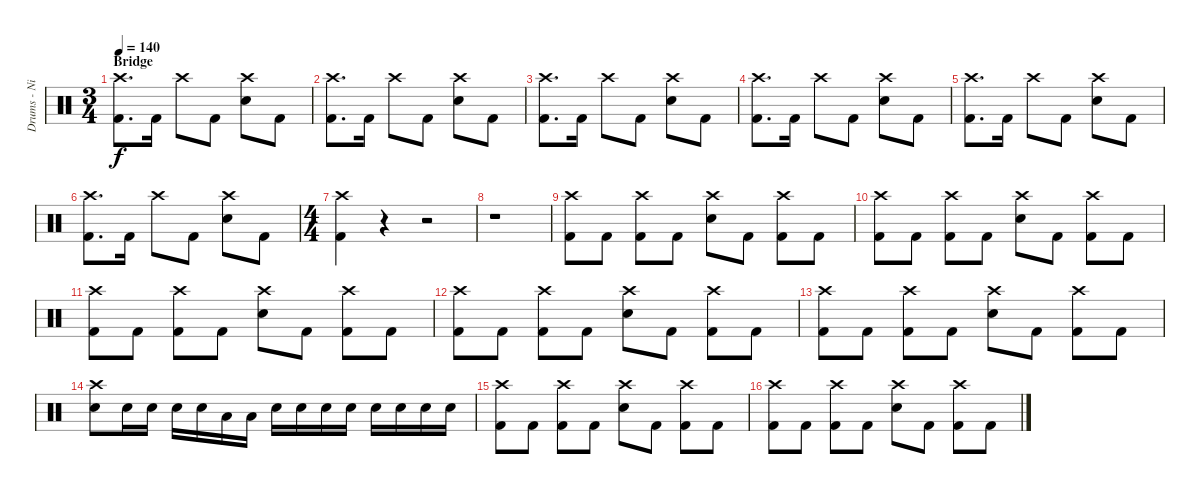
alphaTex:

\track ("Drums - Nick" "Drums - Ni") {instrument percussion}
\staff {score}
\articulation defaults
\ts (3 4)
\section ("" "Bridge ")
\tempo 140
\clef neutral
\ks c
("Crash high (hit)" "Kick (hit) 2").8{d dy f} "Kick (hit) 2".16 "Crash high (hit)".8 "Kick (hit) 2".8 ("Crash high (hit)" "Snare (hit) 2").8 "Kick (hit) 2".8 |
("Crash high (hit)" "Kick (hit) 2").8{d} "Kick (hit) 2".16 "Crash high (hit)".8 "Kick (hit) 2".8 ("Crash high (hit)" "Snare (hit) 2").8 "Kick (hit) 2".8 |
("Crash high (hit)" "Kick (hit) 2").8{d} "Kick (hit) 2".16 "Crash high (hit)".8 "Kick (hit) 2".8 ("Crash high (hit)" "Snare (hit) 2").8 "Kick (hit) 2".8 |
("Crash high (hit)" "Kick (hit) 2").8{d} "Kick (hit) 2".16 "Crash high (hit)".8 "Kick (hit) 2".8 ("Crash high (hit)" "Snare (hit) 2").8 "Kick (hit) 2".8 |
("Crash high (hit)" "Kick (hit) 2").8{d} "Kick (hit) 2".16 "Crash high (hit)".8 "Kick (hit) 2".8 ("Crash high (hit)" "Snare (hit) 2").8 "Kick (hit) 2".8 |
("Crash high (hit)" "Kick (hit) 2").8{d} "Kick (hit) 2".16 "Crash high (hit)".8 "Kick (hit) 2".8 ("Crash high (hit)" "Snare (hit) 2").8 "Kick (hit) 2".8 |
\ts (4 4)
("Crash high (hit)" "Kick (hit) 2").4 r.4 r.2 |
r.1 |
("Crash high (hit)" "Kick (hit) 2").8 "Kick (hit) 2".8 ("Crash high (hit)" "Kick (hit) 2").8 "Kick (hit) 2".8 ("Crash high (hit)" "Snare (hit) 2").8 "Kick (hit) 2".8 ("Crash high (hit)" "Kick (hit) 2").8 "Kick (hit) 2".8 |
("Crash high (hit)" "Kick (hit) 2").8 "Kick (hit) 2".8 ("Crash high (hit)" "Kick (hit) 2").8 "Kick (hit) 2".8 ("Crash high (hit)" "Snare (hit) 2").8 "Kick (hit) 2".8 ("Crash high (hit)" "Kick (hit) 2").8 "Kick (hit) 2".8 |
("Crash high (hit)" "Kick (hit) 2").8 "Kick (hit) 2".8 ("Crash high (hit)" "Kick (hit) 2").8 "Kick (hit) 2".8 ("Crash high (hit)" "Snare (hit) 2").8 "Kick (hit) 2".8 ("Crash high (hit)" "Kick (hit) 2").8 "Kick (hit) 2".8 |
("Crash high (hit)" "Kick (hit) 2").8 "Kick (hit) 2".8 ("Crash high (hit)" "Kick (hit) 2").8 "Kick (hit) 2".8 ("Crash high (hit)" "Snare (hit) 2").8 "Kick (hit) 2".8 ("Crash high (hit)" "Kick (hit) 2").8 "Kick (hit) 2".8 |
("Crash high (hit)" "Kick (hit) 2").8 "Kick (hit) 2".8 ("Crash high (hit)" "Kick (hit) 2").8 "Kick (hit) 2".8 ("Crash high (hit)" "Snare (hit) 2").8 "Kick (hit) 2".8 ("Crash high (hit)" "Kick (hit) 2").8 "Kick (hit) 2".8 |
("Snare (hit) 2" "Crash high (hit)").8 "Snare (hit) 2".16 "Snare (hit) 2".16 "Snare (hit) 2".16 "Snare (hit) 2".16 "Low Tom (hit)".16 "Low Tom (hit)".16 "Snare (hit) 2".16 "Snare (hit) 2".16 "Snare (hit) 2".16 "Snare (hit) 2".16 "Snare (hit) 2".16 "Snare (hit) 2".16 "Snare (hit) 2".16 "Snare (hit) 2".16 |
("Crash high (hit)" "Kick (hit) 2").8 "Kick (hit) 2".8 ("Crash high (hit)" "Kick (hit) 2").8 "Kick (hit) 2".8 ("Crash high (hit)" "Snare (hit) 2").8 "Kick (hit) 2".8 ("Crash high (hit)" "Kick (hit) 2").8 "Kick (hit) 2".8 |
("Crash high (hit)" "Kick (hit) 2").8 "Kick (hit) 2".8 ("Crash high (hit)" "Kick (hit) 2").8 "Kick (hit) 2".8 ("Crash high (hit)" "Snare (hit) 2").8 "Kick (hit) 2".8 ("Crash high (hit)" "Kick (hit) 2").8 "Kick (hit) 2".8
